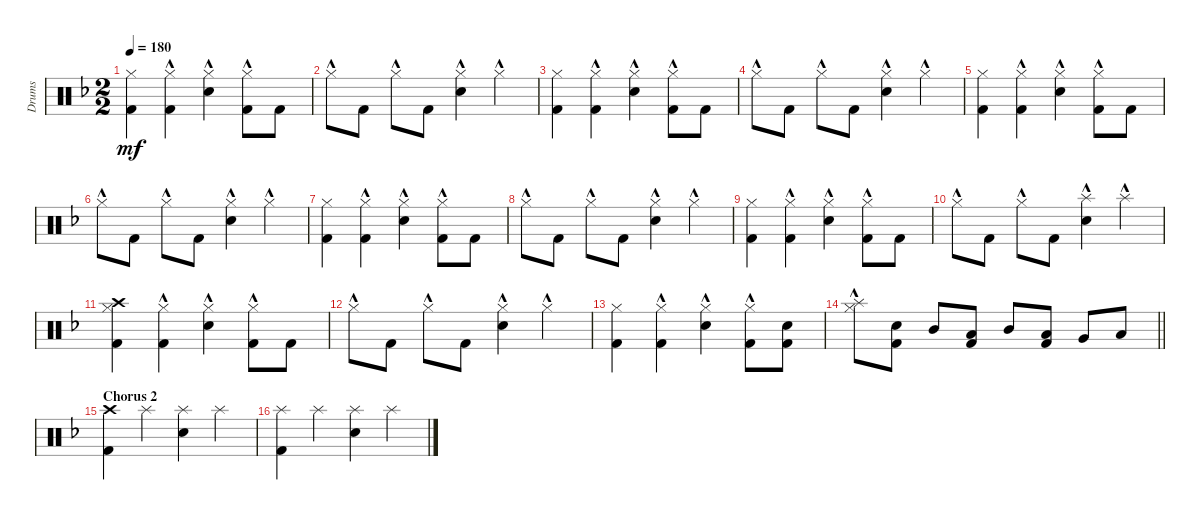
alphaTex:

\track ("Drums" "Drums") {instrument percussion}
\staff {score}
\articulation defaults
\ts (2 2)
\tempo 180
\clef neutral
\ks dminor
("Hi-Hat (closed)" "Kick (hit) 2").4{dy mf} ("Hi-Hat (closed)"{hac} "Kick (hit) 2").4 ("Hi-Hat (closed)"{hac} "Snare (hit) 2").4 ("Hi-Hat (closed)"{hac} "Kick (hit) 2").8 "Kick (hit) 2".8 |
"Hi-Hat (closed)"{hac}.8 "Kick (hit) 2".8 "Hi-Hat (closed)"{hac}.8 "Kick (hit) 2".8 ("Hi-Hat (closed)"{hac} "Snare (hit) 2").4 "Hi-Hat (closed)"{hac}.4 |
("Hi-Hat (closed)" "Kick (hit) 2").4 ("Hi-Hat (closed)"{hac} "Kick (hit) 2").4 ("Hi-Hat (closed)"{hac} "Snare (hit) 2").4 ("Hi-Hat (closed)"{hac} "Kick (hit) 2").8 "Kick (hit) 2".8 |
"Hi-Hat (closed)"{hac}.8 "Kick (hit) 2".8 "Hi-Hat (closed)"{hac}.8 "Kick (hit) 2".8 ("Hi-Hat (closed)"{hac} "Snare (hit) 2").4 "Hi-Hat (closed)"{hac}.4 |
("Hi-Hat (closed)" "Kick (hit) 2").4 ("Hi-Hat (closed)"{hac} "Kick (hit) 2").4 ("Hi-Hat (closed)"{hac} "Snare (hit) 2").4 ("Hi-Hat (closed)"{hac} "Kick (hit) 2").8 "Kick (hit) 2".8 |
"Hi-Hat (closed)"{hac}.8 "Kick (hit) 2".8 "Hi-Hat (closed)"{hac}.8 "Kick (hit) 2".8 ("Hi-Hat (closed)"{hac} "Snare (hit) 2").4 "Hi-Hat (closed)"{hac}.4 |
("Hi-Hat (closed)" "Kick (hit) 2").4 ("Hi-Hat (closed)"{hac} "Kick (hit) 2").4 ("Hi-Hat (closed)"{hac} "Snare (hit) 2").4 ("Hi-Hat (closed)"{hac} "Kick (hit) 2").8 "Kick (hit) 2".8 |
"Hi-Hat (closed)"{hac}.8 "Kick (hit) 2".8 "Hi-Hat (closed)"{hac}.8 "Kick (hit) 2".8 ("Hi-Hat (closed)"{hac} "Snare (hit) 2").4 "Hi-Hat (closed)"{hac}.4 |
("Hi-Hat (closed)" "Kick (hit) 2").4 ("Hi-Hat (closed)"{hac} "Kick (hit) 2").4 ("Hi-Hat (closed)"{hac} "Snare (hit) 2").4 ("Hi-Hat (closed)"{hac} "Kick (hit) 2").8 "Kick (hit) 2".8 |
"Hi-Hat (closed)"{hac}.8 "Kick (hit) 2".8 "Hi-Hat (closed)"{hac}.8 "Kick (hit) 2".8 ("Splash (hit)"{hac} "Snare (hit) 2").4 "Splash (hit)"{hac}.4 |
("Hi-Hat (closed)" "Kick (hit) 2" "Crash high (hit)").4 ("Hi-Hat (closed)"{hac} "Kick (hit) 2").4 ("Hi-Hat (closed)"{hac} "Snare (hit) 2").4 ("Hi-Hat (closed)"{hac} "Kick (hit) 2").8 "Kick (hit) 2".8 |
"Hi-Hat (closed)"{hac}.8 "Kick (hit) 2".8 "Hi-Hat (closed)"{hac}.8 "Kick (hit) 2".8 ("Hi-Hat (closed)"{hac} "Snare (hit) 2").4 "Hi-Hat (closed)"{hac}.4 |
("Hi-Hat (closed)" "Kick (hit) 2").4 ("Hi-Hat (closed)"{hac} "Kick (hit) 2").4 ("Hi-Hat (closed)"{hac} "Snare (hit) 2").4 ("Hi-Hat (closed)"{hac} "Kick (hit) 2").8 ("Snare (hit) 2" "Kick (hit) 2").8 |
\barLineRight lightlight
("Hi-Hat (closed)"{hac} "Splash (hit)").8 ("Snare (hit) 2" "Kick (hit) 2").8 "Mid Tom (hit)".8 ("Low Tom (hit)" "Kick (hit) 2").8 "Mid Tom (hit)".8 ("Low Tom (hit)" "Kick (hit) 2").8 "Very Low Tom (hit)".8 "Low Floor Tom (hit)".8 |
\section ("" "Chorus 2")
("Crash high (hit)" "Kick (hit) 2").4 "Splash (hit)".4 ("Splash (hit)" "Snare (hit) 2").4 "Splash (hit)".4 |
("Splash (hit)" "Kick (hit) 2").4 "Splash (hit)".4 ("Splash (hit)" "Snare (hit) 2").4 "Splash (hit)".4
